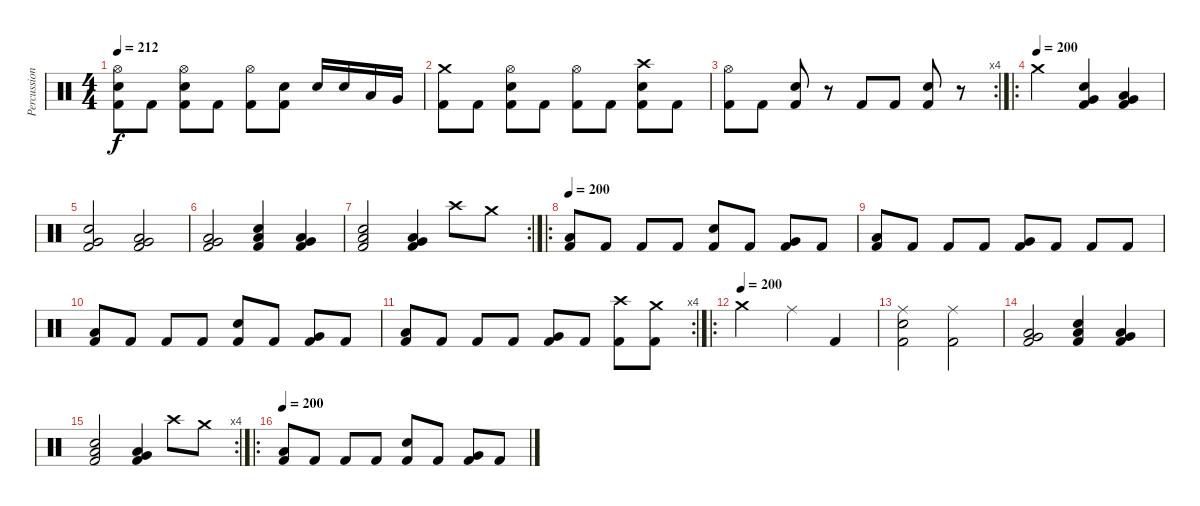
\track ("Percussions" "Percussion") {instrument percussion}
\staff {score}
\articulation defaults
\ts (4 4)
\tempo 212
\clef neutral
\ks c
("Hi-Hat (open)" "Snare (hit) 2" "Kick (hit) 2").8{dy f} "Kick (hit) 2".8 ("Hi-Hat (open)" "Snare (hit) 2" "Kick (hit) 2").8 "Kick (hit) 2".8 ("Hi-Hat (open)" "Kick (hit) 2").8 ("Snare (hit) 2" "Kick (hit) 2").8 "Snare (hit) 2".16 "Snare (hit) 2".16 "Low Tom (hit)".16 "Very Low Tom (hit)".16 |
("Crash medium (hit)" "Kick (hit) 2").8 "Kick (hit) 2".8 ("Hi-Hat (open)" "Snare (hit) 2" "Kick (hit) 2").8 "Kick (hit) 2".8 ("Hi-Hat (open)" "Kick (hit) 2").8 "Kick (hit) 2".8 ("Crash high (hit)" "Snare (hit) 2" "Kick (hit) 2").8 "Kick (hit) 2".8 |
\rc 4
("Hi-Hat (open)" "Kick (hit) 2").8 "Kick (hit) 2".8 ("Snare (hit) 2" "Kick (hit) 2").8 r.8 "Kick (hit) 2".8 "Kick (hit) 2".8 ("Snare (hit) 2" "Kick (hit) 2").8 r.8 |
\ro
\tempo (200)
"Crash medium (hit)".2 ("Very Low Tom (hit)" "Electric Snare (hit)" "Kick (hit) 2").4 ("Low Floor Tom (hit)" "Very Low Tom (hit)" "Kick (hit) 2").4 |
("Very Low Tom (hit)" "Electric Snare (hit)" "Kick (hit) 2").2 ("Low Floor Tom (hit)" "Very Low Tom (hit)" "Kick (hit) 2").2 |
("Low Floor Tom (hit)" "Very Low Tom (hit)" "Kick (hit) 2").2 ("Low Floor Tom (hit)" "Electric Snare (hit)" "Kick (hit) 2").4 ("Low Floor Tom (hit)" "Very Low Tom (hit)" "Kick (hit) 2").4 |
\rc 2
("Low Floor Tom (hit)" "Electric Snare (hit)" "Kick (hit) 2").2 ("Low Floor Tom (hit)" "Very Low Tom (hit)" "Kick (hit) 2").4 "Crash high (hit)".8 "Crash medium (hit)".8 |
\ro
\tempo 200
("Low Floor Tom (hit)" "Kick (hit) 2").8 "Kick (hit) 2".8 "Kick (hit) 2".8 "Kick (hit) 2".8 ("Electric Snare (hit)" "Kick (hit) 2").8 "Kick (hit) 2".8 ("Very Low Tom (hit)" "Kick (hit) 2").8 "Kick (hit) 2".8 |
("Low Floor Tom (hit)" "Kick (hit) 2").8 "Kick (hit) 2".8 "Kick (hit) 2".8 "Kick (hit) 2".8 ("Very Low Tom (hit)" "Kick (hit) 2").8 "Kick (hit) 2".8 "Kick (hit) 2".8 "Kick (hit) 2".8 |
("Low Floor Tom (hit)" "Kick (hit) 2").8 "Kick (hit) 2".8 "Kick (hit) 2".8 "Kick (hit) 2".8 ("Electric Snare (hit)" "Kick (hit) 2").8 "Kick (hit) 2".8 ("Very Low Tom (hit)" "Kick (hit) 2").8 "Kick (hit) 2".8 |
\rc 4
("Low Floor Tom (hit)" "Kick (hit) 2").8 "Kick (hit) 2".8 "Kick (hit) 2".8 "Kick (hit) 2".8 ("Very Low Tom (hit)" "Kick (hit) 2").8 "Kick (hit) 2".8 ("Crash high (hit)" "Kick (hit) 2").8 ("Crash medium (hit)" "Kick (hit) 2").8 |
\ro
\tempo (200)
"Crash medium (hit)".2 "Ride (middle)".4 "Kick (hit) 2".4 |
("Ride (middle)" "Electric Snare (hit)" "Kick (hit) 2").2 ("Ride (middle)" "Kick (hit) 2").2 |
("Low Floor Tom (hit)" "Very Low Tom (hit)" "Kick (hit) 2").2 ("Low Floor Tom (hit)" "Electric Snare (hit)" "Kick (hit) 2").4 ("Low Floor Tom (hit)" "Very Low Tom (hit)" "Kick (hit) 2").4 |
\rc 4
("Low Floor Tom (hit)" "Electric Snare (hit)" "Kick (hit) 2").2 ("Low Floor Tom (hit)" "Very Low Tom (hit)" "Kick (hit) 2").4 "Crash high (hit)".8 "Crash medium (hit)".8 |
\ro
\tempo 200
("Low Floor Tom (hit)" "Kick (hit) 2").8 "Kick (hit) 2".8 "Kick (hit) 2".8 "Kick (hit) 2".8 ("Electric Snare (hit)" "Kick (hit) 2").8 "Kick (hit) 2".8 ("Very Low Tom (hit)" "Kick (hit) 2").8 "Kick (hit) 2".8
